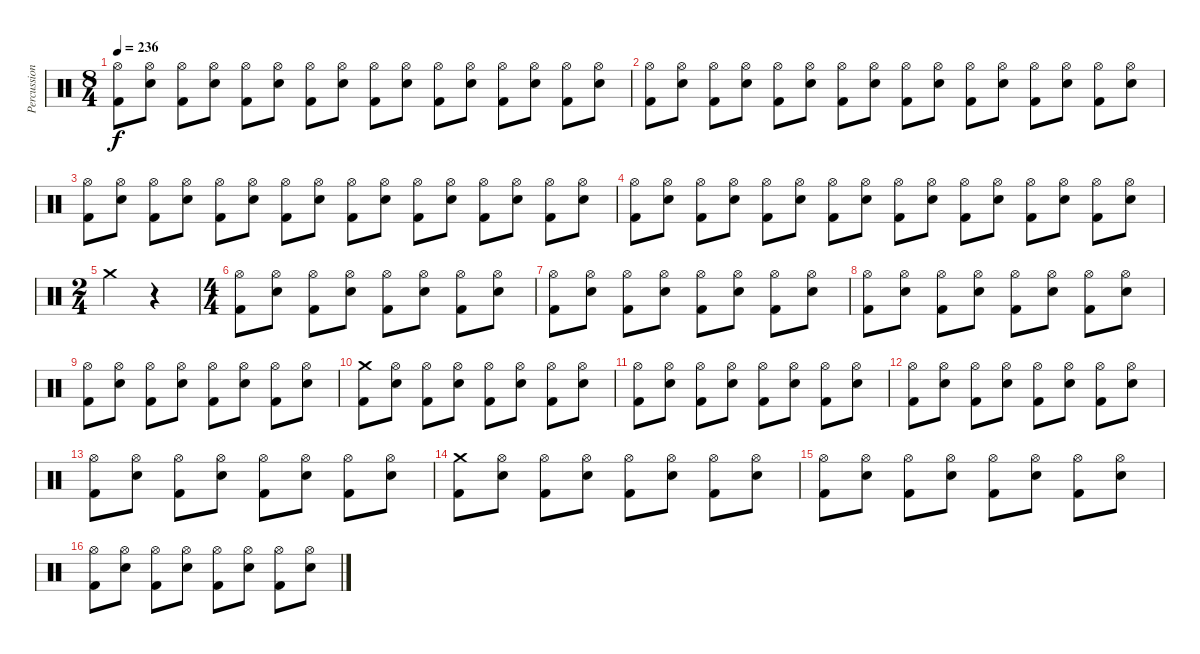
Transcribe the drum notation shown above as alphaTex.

\track ("Percussion" "Percussion") {instrument percussion}
\staff {score}
\articulation defaults
\ts (8 4)
\tempo 236
\clef neutral
\ks c
("Hi-Hat (open)" "Kick (hit) 2").8{dy f} ("Hi-Hat (open)" "Snare (hit) 2").8 ("Hi-Hat (open)" "Kick (hit) 2").8 ("Hi-Hat (open)" "Snare (hit) 2").8 ("Hi-Hat (open)" "Kick (hit) 2").8 ("Hi-Hat (open)" "Snare (hit) 2").8 ("Hi-Hat (open)" "Kick (hit) 2").8 ("Hi-Hat (open)" "Snare (hit) 2").8 ("Hi-Hat (open)" "Kick (hit) 2").8 ("Hi-Hat (open)" "Snare (hit) 2").8 ("Hi-Hat (open)" "Kick (hit) 2").8 ("Hi-Hat (open)" "Snare (hit) 2").8 ("Hi-Hat (open)" "Kick (hit) 2").8 ("Hi-Hat (open)" "Snare (hit) 2").8 ("Hi-Hat (open)" "Kick (hit) 2").8 ("Hi-Hat (open)" "Snare (hit) 2").8 |
("Hi-Hat (open)" "Kick (hit) 2").8 ("Hi-Hat (open)" "Snare (hit) 2").8 ("Hi-Hat (open)" "Kick (hit) 2").8 ("Hi-Hat (open)" "Snare (hit) 2").8 ("Hi-Hat (open)" "Kick (hit) 2").8 ("Hi-Hat (open)" "Snare (hit) 2").8 ("Hi-Hat (open)" "Kick (hit) 2").8 ("Hi-Hat (open)" "Snare (hit) 2").8 ("Hi-Hat (open)" "Kick (hit) 2").8 ("Hi-Hat (open)" "Snare (hit) 2").8 ("Hi-Hat (open)" "Kick (hit) 2").8 ("Hi-Hat (open)" "Snare (hit) 2").8 ("Hi-Hat (open)" "Kick (hit) 2").8 ("Hi-Hat (open)" "Snare (hit) 2").8 ("Hi-Hat (open)" "Kick (hit) 2").8 ("Hi-Hat (open)" "Snare (hit) 2").8 |
("Hi-Hat (open)" "Kick (hit) 2").8 ("Hi-Hat (open)" "Snare (hit) 2").8 ("Hi-Hat (open)" "Kick (hit) 2").8 ("Hi-Hat (open)" "Snare (hit) 2").8 ("Hi-Hat (open)" "Kick (hit) 2").8 ("Hi-Hat (open)" "Snare (hit) 2").8 ("Hi-Hat (open)" "Kick (hit) 2").8 ("Hi-Hat (open)" "Snare (hit) 2").8 ("Hi-Hat (open)" "Kick (hit) 2").8 ("Hi-Hat (open)" "Snare (hit) 2").8 ("Hi-Hat (open)" "Kick (hit) 2").8 ("Hi-Hat (open)" "Snare (hit) 2").8 ("Hi-Hat (open)" "Kick (hit) 2").8 ("Hi-Hat (open)" "Snare (hit) 2").8 ("Hi-Hat (open)" "Kick (hit) 2").8 ("Hi-Hat (open)" "Snare (hit) 2").8 |
("Hi-Hat (open)" "Kick (hit) 2").8 ("Hi-Hat (open)" "Snare (hit) 2").8 ("Hi-Hat (open)" "Kick (hit) 2").8 ("Hi-Hat (open)" "Snare (hit) 2").8 ("Hi-Hat (open)" "Kick (hit) 2").8 ("Hi-Hat (open)" "Snare (hit) 2").8 ("Hi-Hat (open)" "Kick (hit) 2").8 ("Hi-Hat (open)" "Snare (hit) 2").8 ("Hi-Hat (open)" "Kick (hit) 2").8 ("Hi-Hat (open)" "Snare (hit) 2").8 ("Hi-Hat (open)" "Kick (hit) 2").8 ("Hi-Hat (open)" "Snare (hit) 2").8 ("Hi-Hat (open)" "Kick (hit) 2").8 ("Hi-Hat (open)" "Snare (hit) 2").8 ("Hi-Hat (open)" "Kick (hit) 2").8 ("Hi-Hat (open)" "Snare (hit) 2").8 |
\ts (2 4)
"Crash medium (hit)".4 r.4 |
\ts (4 4)
("Hi-Hat (open)" "Kick (hit) 2").8 ("Hi-Hat (open)" "Snare (hit) 2").8 ("Hi-Hat (open)" "Kick (hit) 2").8 ("Hi-Hat (open)" "Snare (hit) 2").8 ("Hi-Hat (open)" "Kick (hit) 2").8 ("Hi-Hat (open)" "Snare (hit) 2").8 ("Hi-Hat (open)" "Kick (hit) 2").8 ("Hi-Hat (open)" "Snare (hit) 2").8 |
("Hi-Hat (open)" "Kick (hit) 2").8 ("Hi-Hat (open)" "Snare (hit) 2").8 ("Hi-Hat (open)" "Kick (hit) 2").8 ("Hi-Hat (open)" "Snare (hit) 2").8 ("Hi-Hat (open)" "Kick (hit) 2").8 ("Hi-Hat (open)" "Snare (hit) 2").8 ("Hi-Hat (open)" "Kick (hit) 2").8 ("Hi-Hat (open)" "Snare (hit) 2").8 |
("Hi-Hat (open)" "Kick (hit) 2").8 ("Hi-Hat (open)" "Snare (hit) 2").8 ("Hi-Hat (open)" "Kick (hit) 2").8 ("Hi-Hat (open)" "Snare (hit) 2").8 ("Hi-Hat (open)" "Kick (hit) 2").8 ("Hi-Hat (open)" "Snare (hit) 2").8 ("Hi-Hat (open)" "Kick (hit) 2").8 ("Hi-Hat (open)" "Snare (hit) 2").8 |
("Hi-Hat (open)" "Kick (hit) 2").8 ("Hi-Hat (open)" "Snare (hit) 2").8 ("Hi-Hat (open)" "Kick (hit) 2").8 ("Hi-Hat (open)" "Snare (hit) 2").8 ("Hi-Hat (open)" "Kick (hit) 2").8 ("Hi-Hat (open)" "Snare (hit) 2").8 ("Hi-Hat (open)" "Kick (hit) 2").8 ("Hi-Hat (open)" "Snare (hit) 2").8 |
("Crash medium (hit)" "Kick (hit) 2").8 ("Hi-Hat (open)" "Snare (hit) 2").8 ("Hi-Hat (open)" "Kick (hit) 2").8 ("Hi-Hat (open)" "Snare (hit) 2").8 ("Hi-Hat (open)" "Kick (hit) 2").8 ("Hi-Hat (open)" "Snare (hit) 2").8 ("Hi-Hat (open)" "Kick (hit) 2").8 ("Hi-Hat (open)" "Snare (hit) 2").8 |
("Hi-Hat (open)" "Kick (hit) 2").8 ("Hi-Hat (open)" "Snare (hit) 2").8 ("Hi-Hat (open)" "Kick (hit) 2").8 ("Hi-Hat (open)" "Snare (hit) 2").8 ("Hi-Hat (open)" "Kick (hit) 2").8 ("Hi-Hat (open)" "Snare (hit) 2").8 ("Hi-Hat (open)" "Kick (hit) 2").8 ("Hi-Hat (open)" "Snare (hit) 2").8 |
("Hi-Hat (open)" "Kick (hit) 2").8 ("Hi-Hat (open)" "Snare (hit) 2").8 ("Hi-Hat (open)" "Kick (hit) 2").8 ("Hi-Hat (open)" "Snare (hit) 2").8 ("Hi-Hat (open)" "Kick (hit) 2").8 ("Hi-Hat (open)" "Snare (hit) 2").8 ("Hi-Hat (open)" "Kick (hit) 2").8 ("Hi-Hat (open)" "Snare (hit) 2").8 |
("Hi-Hat (open)" "Kick (hit) 2").8 ("Hi-Hat (open)" "Snare (hit) 2").8 ("Hi-Hat (open)" "Kick (hit) 2").8 ("Hi-Hat (open)" "Snare (hit) 2").8 ("Hi-Hat (open)" "Kick (hit) 2").8 ("Hi-Hat (open)" "Snare (hit) 2").8 ("Hi-Hat (open)" "Kick (hit) 2").8 ("Hi-Hat (open)" "Snare (hit) 2").8 |
("Crash medium (hit)" "Kick (hit) 2").8 ("Hi-Hat (open)" "Snare (hit) 2").8 ("Hi-Hat (open)" "Kick (hit) 2").8 ("Hi-Hat (open)" "Snare (hit) 2").8 ("Hi-Hat (open)" "Kick (hit) 2").8 ("Hi-Hat (open)" "Snare (hit) 2").8 ("Hi-Hat (open)" "Kick (hit) 2").8 ("Hi-Hat (open)" "Snare (hit) 2").8 |
("Hi-Hat (open)" "Kick (hit) 2").8 ("Hi-Hat (open)" "Snare (hit) 2").8 ("Hi-Hat (open)" "Kick (hit) 2").8 ("Hi-Hat (open)" "Snare (hit) 2").8 ("Hi-Hat (open)" "Kick (hit) 2").8 ("Hi-Hat (open)" "Snare (hit) 2").8 ("Hi-Hat (open)" "Kick (hit) 2").8 ("Hi-Hat (open)" "Snare (hit) 2").8 |
("Hi-Hat (open)" "Kick (hit) 2").8 ("Hi-Hat (open)" "Snare (hit) 2").8 ("Hi-Hat (open)" "Kick (hit) 2").8 ("Hi-Hat (open)" "Snare (hit) 2").8 ("Hi-Hat (open)" "Kick (hit) 2").8 ("Hi-Hat (open)" "Snare (hit) 2").8 ("Hi-Hat (open)" "Kick (hit) 2").8 ("Hi-Hat (open)" "Snare (hit) 2").8
